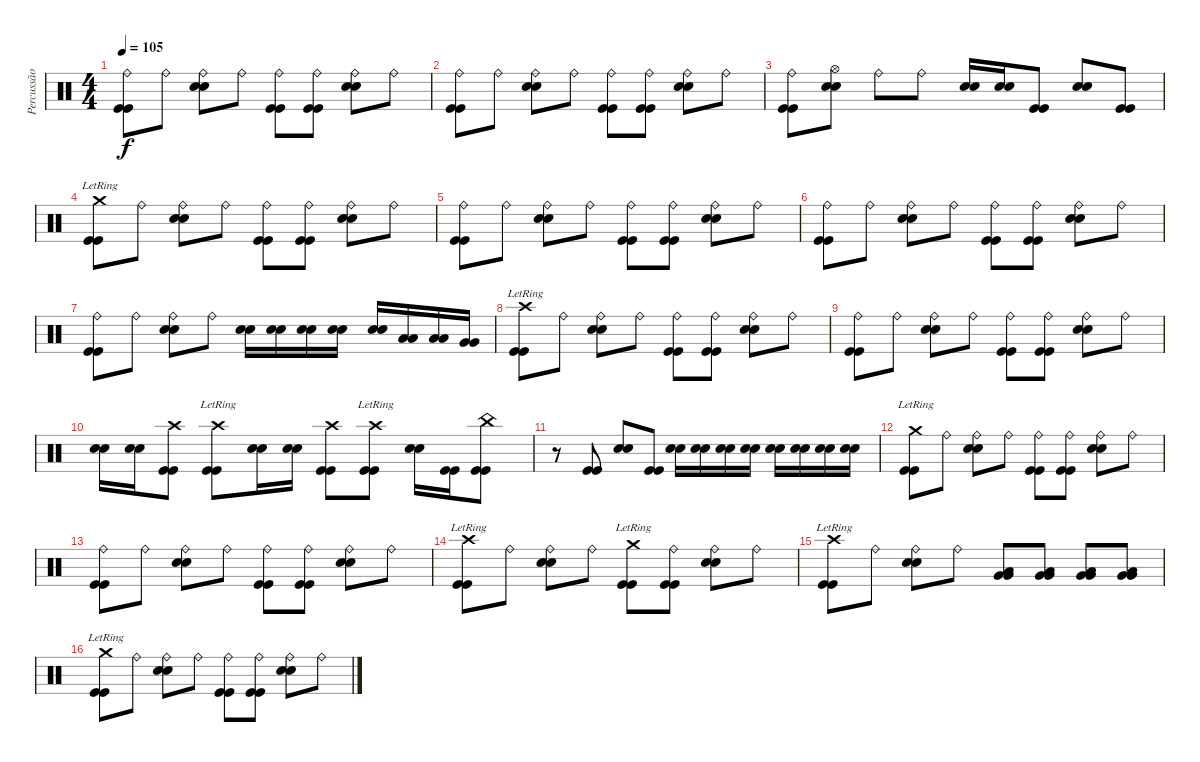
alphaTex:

\track ("Percussão" "Percussão") {instrument percussion}
\staff {score}
\articulation defaults
\ts (4 4)
\tempo 105
\clef neutral
\ks c
("Ride (bell)" "Kick (hit)" "Kick (hit)").8{dy f} "Ride (bell)".8 ("Ride (bell)" "Electric Snare (hit)" "Electric Snare (hit)").8 "Ride (bell)".8 ("Ride (bell)" "Kick (hit)" "Kick (hit)").8 ("Ride (bell)" "Kick (hit)" "Kick (hit)").8 ("Ride (bell)" "Electric Snare (hit)" "Electric Snare (hit)").8 "Ride (bell)".8 |
("Ride (bell)" "Kick (hit)" "Kick (hit)").8 "Ride (bell)".8 ("Ride (bell)" "Electric Snare (hit)" "Electric Snare (hit)").8 "Ride (bell)".8 ("Ride (bell)" "Kick (hit)" "Kick (hit)").8 ("Ride (bell)" "Kick (hit)" "Kick (hit)").8 ("Ride (bell)" "Electric Snare (hit)" "Electric Snare (hit)").8 "Ride (bell)".8 |
("Ride (bell)" "Kick (hit)" "Kick (hit)").8 ("Hi-Hat (open)" "Electric Snare (hit)" "Electric Snare (hit)").8 "Ride (bell)".8 "Ride (bell)".8 ("Electric Snare (hit)" "Electric Snare (hit)").16 ("Electric Snare (hit)" "Electric Snare (hit)").16 ("Kick (hit)" "Kick (hit)").8 ("Electric Snare (hit)" "Electric Snare (hit)").8 ("Kick (hit)" "Kick (hit)").8 |
("Crash medium (hit)"{lr} "Kick (hit)" "Kick (hit)").8 "Ride (bell)".8 ("Ride (bell)" "Electric Snare (hit)" "Electric Snare (hit)").8 "Ride (bell)".8 ("Ride (bell)" "Kick (hit)" "Kick (hit)").8 ("Ride (bell)" "Kick (hit)" "Kick (hit)").8 ("Ride (bell)" "Electric Snare (hit)" "Electric Snare (hit)").8 "Ride (bell)".8 |
("Ride (bell)" "Kick (hit)" "Kick (hit)").8 "Ride (bell)".8 ("Ride (bell)" "Electric Snare (hit)" "Electric Snare (hit)").8 "Ride (bell)".8 ("Ride (bell)" "Kick (hit)" "Kick (hit)").8 ("Ride (bell)" "Kick (hit)" "Kick (hit)").8 ("Ride (bell)" "Electric Snare (hit)" "Electric Snare (hit)").8 "Ride (bell)".8 |
("Ride (bell)" "Kick (hit)" "Kick (hit)").8 "Ride (bell)".8 ("Ride (bell)" "Electric Snare (hit)" "Electric Snare (hit)").8 "Ride (bell)".8 ("Ride (bell)" "Kick (hit)" "Kick (hit)").8 ("Ride (bell)" "Kick (hit)" "Kick (hit)").8 ("Ride (bell)" "Electric Snare (hit)" "Electric Snare (hit)").8 "Ride (bell)".8 |
("Ride (bell)" "Kick (hit)" "Kick (hit)").8 "Ride (bell)".8 ("Ride (bell)" "Electric Snare (hit)" "Electric Snare (hit)").8 "Ride (bell)".8 ("Electric Snare (hit)" "Electric Snare (hit)").16 ("Electric Snare (hit)" "Electric Snare (hit)").16 ("Electric Snare (hit)" "Electric Snare (hit)").16 ("Electric Snare (hit)" "Electric Snare (hit)").16 ("Electric Snare (hit)" "Electric Snare (hit)").16 ("Low Tom (hit)" "Low Tom (hit)").16 ("Low Tom (hit)" "Low Tom (hit)").16 ("Very Low Tom (hit)" "Very Low Tom (hit)").16 |
("Crash high (hit)"{lr} "Kick (hit)" "Kick (hit)").8 "Ride (bell)".8 ("Ride (bell)" "Electric Snare (hit)" "Electric Snare (hit)").8 "Ride (bell)".8 ("Ride (bell)" "Kick (hit)" "Kick (hit)").8 ("Ride (bell)" "Kick (hit)" "Kick (hit)").8 ("Ride (bell)" "Electric Snare (hit)" "Electric Snare (hit)").8 "Ride (bell)".8 |
("Ride (bell)" "Kick (hit)" "Kick (hit)").8 "Ride (bell)".8 ("Ride (bell)" "Electric Snare (hit)" "Electric Snare (hit)").8 "Ride (bell)".8 ("Ride (bell)" "Kick (hit)" "Kick (hit)").8 ("Ride (bell)" "Kick (hit)" "Kick (hit)").8 ("Ride (bell)" "Electric Snare (hit)" "Electric Snare (hit)").8 "Ride (bell)".8 |
("Electric Snare (hit)" "Electric Snare (hit)").16 ("Electric Snare (hit)" "Electric Snare (hit)").16 ("Crash high (hit)" "Kick (hit)" "Kick (hit)").8 ("Crash high (hit)"{lr} "Kick (hit)" "Kick (hit)").8 ("Electric Snare (hit)" "Electric Snare (hit)").16 ("Electric Snare (hit)" "Electric Snare (hit)").16 ("Crash high (hit)" "Kick (hit)" "Kick (hit)").8 ("Crash high (hit)"{lr} "Kick (hit)" "Kick (hit)").8 ("Electric Snare (hit)" "Electric Snare (hit)").16 ("Kick (hit)" "Kick (hit)").16 ("China (hit)" "Kick (hit)" "Kick (hit)").8 |
r.8 ("Kick (hit)" "Kick (hit)").8 ("Electric Snare (hit)" "Electric Snare (hit)").8 ("Kick (hit)" "Kick (hit)").8 ("Electric Snare (hit)" "Electric Snare (hit)").16 ("Electric Snare (hit)" "Electric Snare (hit)").16 ("Electric Snare (hit)" "Electric Snare (hit)").16 ("Electric Snare (hit)" "Electric Snare (hit)").16 ("Electric Snare (hit)" "Electric Snare (hit)").16 ("Electric Snare (hit)" "Electric Snare (hit)").16 ("Electric Snare (hit)" "Electric Snare (hit)").16 ("Electric Snare (hit)" "Electric Snare (hit)").16 |
("Crash medium (hit)"{lr} "Kick (hit)" "Kick (hit)").8 "Ride (bell)".8 ("Ride (bell)" "Electric Snare (hit)" "Electric Snare (hit)").8 "Ride (bell)".8 ("Ride (bell)" "Kick (hit)" "Kick (hit)").8 ("Ride (bell)" "Kick (hit)" "Kick (hit)").8 ("Ride (bell)" "Electric Snare (hit)" "Electric Snare (hit)").8 "Ride (bell)".8 |
("Ride (bell)" "Kick (hit)" "Kick (hit)").8 "Ride (bell)".8 ("Ride (bell)" "Electric Snare (hit)" "Electric Snare (hit)").8 "Ride (bell)".8 ("Ride (bell)" "Kick (hit)" "Kick (hit)").8 ("Ride (bell)" "Kick (hit)" "Kick (hit)").8 ("Ride (bell)" "Electric Snare (hit)" "Electric Snare (hit)").8 "Ride (bell)".8 |
("Crash high (hit)"{lr} "Kick (hit)" "Kick (hit)").8 "Ride (bell)".8 ("Ride (bell)" "Electric Snare (hit)" "Electric Snare (hit)").8 "Ride (bell)".8 ("Crash medium (hit)"{lr} "Kick (hit)" "Kick (hit)").8 ("Ride (bell)" "Kick (hit)" "Kick (hit)").8 ("Ride (bell)" "Electric Snare (hit)" "Electric Snare (hit)").8 "Ride (bell)".8 |
("Crash high (hit)"{lr} "Kick (hit)" "Kick (hit)").8 "Ride (bell)".8 ("Ride (bell)" "Electric Snare (hit)" "Electric Snare (hit)").8 "Ride (bell)".8 ("Low Tom (hit)" "Very Low Tom (hit)" "Very Low Tom (hit)").8 ("Low Tom (hit)" "Very Low Tom (hit)" "Very Low Tom (hit)").8 ("Low Tom (hit)" "Very Low Tom (hit)" "Very Low Tom (hit)").8 ("Low Tom (hit)" "Very Low Tom (hit)" "Very Low Tom (hit)").8 |
("Crash medium (hit)"{lr} "Kick (hit)" "Kick (hit)").8 "Ride (bell)".8 ("Ride (bell)" "Electric Snare (hit)" "Electric Snare (hit)").8 "Ride (bell)".8 ("Ride (bell)" "Kick (hit)" "Kick (hit)").8 ("Ride (bell)" "Kick (hit)" "Kick (hit)").8 ("Ride (bell)" "Electric Snare (hit)" "Electric Snare (hit)").8 "Ride (bell)".8
